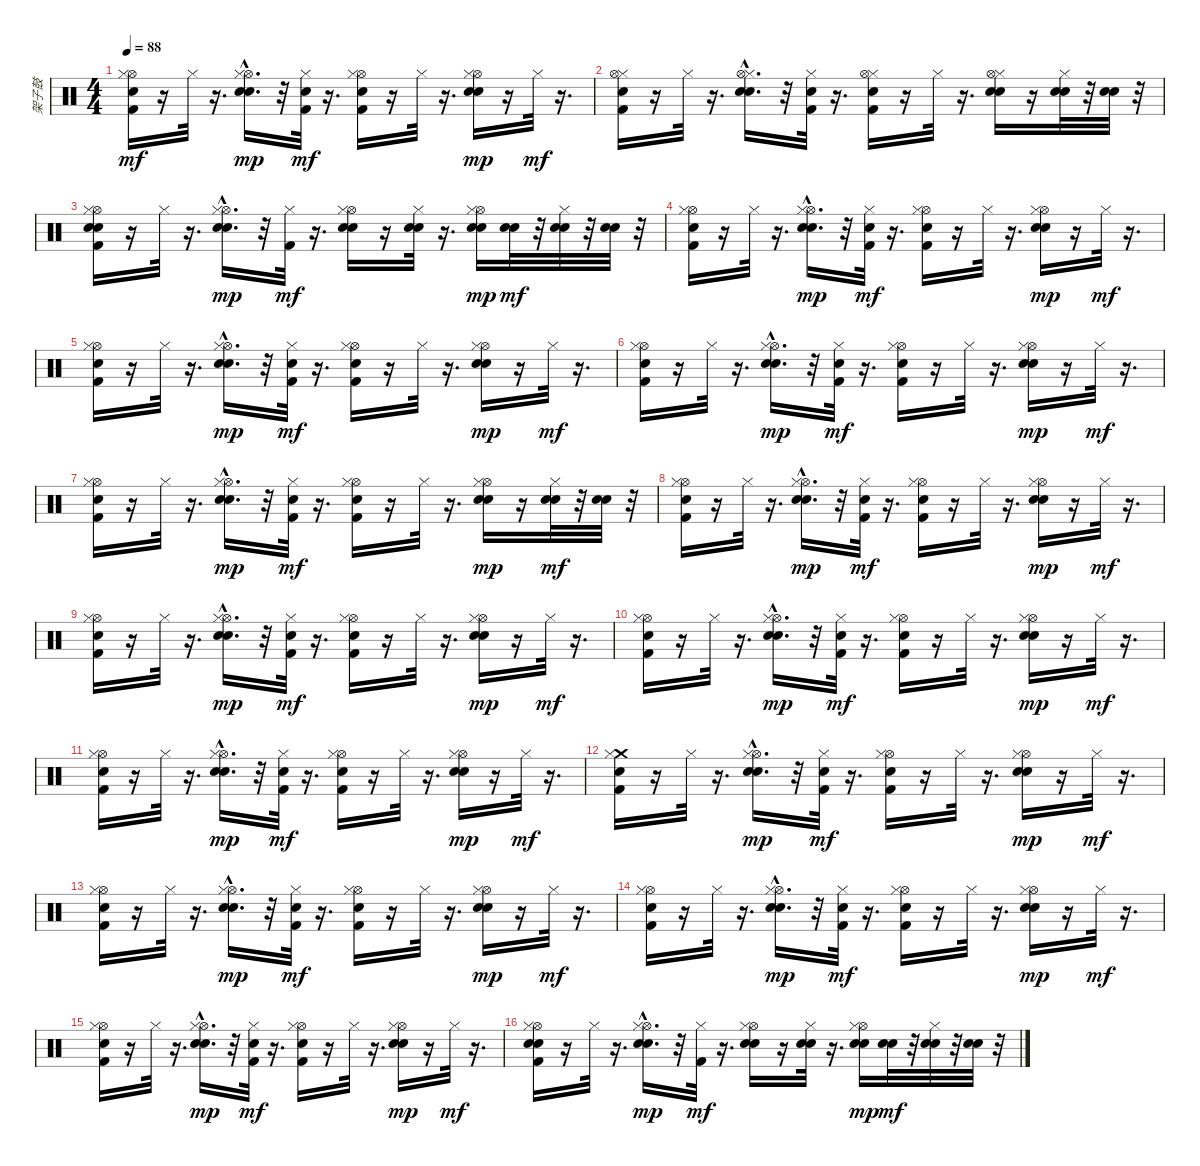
\track ("架子鼓" "架子鼓") {instrument percussion}
\staff {score}
\articulation defaults
\ts (4 4)
\tempo 88
\clef neutral
\ks c
("Hi-Hat (open)" "Hi-Hat (closed)" "Kick (hit) 2" "Snare (hit)").16{dy mf} r.16 "Hi-Hat (closed)".32 r.16{d} ("Hi-Hat (open)"{hac} "Hi-Hat (closed)" "Electric Snare (hit)" "Metronome (bell)").16{d dy mp} r.32 ("Hi-Hat (closed)" "Kick (hit) 2" "Snare (hit)").32{dy mf} r.16{d} ("Hi-Hat (open)" "Hi-Hat (closed)" "Kick (hit) 2" "Snare (hit)").16 r.16 "Hi-Hat (closed)".32 r.16{d} ("Hi-Hat (open)" "Hi-Hat (closed)" "Electric Snare (hit)" "Metronome (bell)").16{dy mp} r.16 "Hi-Hat (closed)".32{dy mf} r.16{d} |
("Snare (hit)" "Kick (hit) 2" "Hi-Hat (closed)" "Hi-Hat (open)").16 r.16 "Hi-Hat (closed)".32 r.16{d} ("Metronome (bell)" "Electric Snare (hit)" "Hi-Hat (closed)" "Hi-Hat (open)"{hac}).16{d} r.32 ("Snare (hit)" "Kick (hit) 2" "Hi-Hat (closed)").32 r.16{d} ("Snare (hit)" "Kick (hit) 2" "Hi-Hat (closed)" "Hi-Hat (open)").16 r.16 "Hi-Hat (closed)".32 r.16{d} ("Metronome (bell)" "Electric Snare (hit)" "Hi-Hat (closed)" "Hi-Hat (open)").16 r.16 ("Metronome (bell)" "Hi-Hat (closed)" "Electric Snare (hit)").32 r.32 ("Electric Snare (hit)" "Metronome (bell)").32 r.32 |
("Hi-Hat (open)" "Hi-Hat (closed)" "Electric Snare (hit)" "Electric Snare (hit)" "Kick (hit) 2").16 r.16 "Hi-Hat (closed)".32 r.16{d} ("Hi-Hat (open)"{hac} "Hi-Hat (closed)" "Electric Snare (hit)" "Metronome (bell)").16{d dy mp} r.32 ("Hi-Hat (closed)" "Kick (hit) 2").32{dy mf} r.16{d} ("Hi-Hat (open)" "Hi-Hat (closed)" "Electric Snare (hit)" "Metronome (bell)").16 r.16 ("Hi-Hat (closed)" "Electric Snare (hit)" "Metronome (bell)").32 r.16{d} ("Hi-Hat (open)" "Hi-Hat (closed)" "Electric Snare (hit)" "Metronome (bell)").16{dy mp} ("Electric Snare (hit)" "Metronome (bell)").32{dy mf} r.32 ("Hi-Hat (closed)" "Electric Snare (hit)" "Metronome (bell)").32 r.32 ("Electric Snare (hit)" "Metronome (bell)").32 r.32 |
("Hi-Hat (open)" "Hi-Hat (closed)" "Kick (hit) 2" "Snare (hit)").16 r.16 "Hi-Hat (closed)".32 r.16{d} ("Hi-Hat (open)"{hac} "Hi-Hat (closed)" "Electric Snare (hit)" "Metronome (bell)").16{d dy mp} r.32 ("Hi-Hat (closed)" "Kick (hit) 2" "Snare (hit)").32{dy mf} r.16{d} ("Hi-Hat (open)" "Hi-Hat (closed)" "Kick (hit) 2" "Snare (hit)").16 r.16 "Hi-Hat (closed)".32 r.16{d} ("Hi-Hat (open)" "Hi-Hat (closed)" "Electric Snare (hit)" "Metronome (bell)").16{dy mp} r.16 "Hi-Hat (closed)".32{dy mf} r.16{d} |
("Hi-Hat (open)" "Hi-Hat (closed)" "Kick (hit) 2" "Snare (hit)").16 r.16 "Hi-Hat (closed)".32 r.16{d} ("Hi-Hat (open)"{hac} "Hi-Hat (closed)" "Electric Snare (hit)" "Metronome (bell)").16{d dy mp} r.32 ("Hi-Hat (closed)" "Kick (hit) 2" "Snare (hit)").32{dy mf} r.16{d} ("Hi-Hat (open)" "Hi-Hat (closed)" "Kick (hit) 2" "Snare (hit)").16 r.16 "Hi-Hat (closed)".32 r.16{d} ("Hi-Hat (open)" "Hi-Hat (closed)" "Electric Snare (hit)" "Metronome (bell)").16{dy mp} r.16 "Hi-Hat (closed)".32{dy mf} r.16{d} |
("Hi-Hat (open)" "Hi-Hat (closed)" "Kick (hit) 2" "Snare (hit)").16 r.16 "Hi-Hat (closed)".32 r.16{d} ("Hi-Hat (open)"{hac} "Hi-Hat (closed)" "Electric Snare (hit)" "Metronome (bell)").16{d dy mp} r.32 ("Hi-Hat (closed)" "Kick (hit) 2" "Snare (hit)").32{dy mf} r.16{d} ("Hi-Hat (open)" "Hi-Hat (closed)" "Kick (hit) 2" "Snare (hit)").16 r.16 "Hi-Hat (closed)".32 r.16{d} ("Hi-Hat (open)" "Hi-Hat (closed)" "Electric Snare (hit)" "Metronome (bell)").16{dy mp} r.16 "Hi-Hat (closed)".32{dy mf} r.16{d} |
("Hi-Hat (open)" "Hi-Hat (closed)" "Kick (hit) 2" "Snare (hit)").16 r.16 "Hi-Hat (closed)".32 r.16{d} ("Hi-Hat (open)"{hac} "Hi-Hat (closed)" "Electric Snare (hit)" "Metronome (bell)").16{d dy mp} r.32 ("Hi-Hat (closed)" "Kick (hit) 2" "Snare (hit)").32{dy mf} r.16{d} ("Hi-Hat (open)" "Hi-Hat (closed)" "Kick (hit) 2" "Snare (hit)").16 r.16 "Hi-Hat (closed)".32 r.16{d} ("Hi-Hat (open)" "Hi-Hat (closed)" "Electric Snare (hit)" "Metronome (bell)").16{dy mp} r.16 ("Hi-Hat (closed)" "Electric Snare (hit)" "Metronome (bell)").32{dy mf} r.32 ("Electric Snare (hit)" "Metronome (bell)").32 r.32 |
("Hi-Hat (open)" "Hi-Hat (closed)" "Kick (hit) 2" "Snare (hit)").16 r.16 "Hi-Hat (closed)".32 r.16{d} ("Hi-Hat (open)"{hac} "Hi-Hat (closed)" "Electric Snare (hit)" "Metronome (bell)").16{d dy mp} r.32 ("Hi-Hat (closed)" "Kick (hit) 2" "Snare (hit)").32{dy mf} r.16{d} ("Hi-Hat (open)" "Hi-Hat (closed)" "Kick (hit) 2" "Snare (hit)").16 r.16 "Hi-Hat (closed)".32 r.16{d} ("Hi-Hat (open)" "Hi-Hat (closed)" "Electric Snare (hit)" "Metronome (bell)").16{dy mp} r.16 "Hi-Hat (closed)".32{dy mf} r.16{d} |
("Hi-Hat (open)" "Hi-Hat (closed)" "Kick (hit) 2" "Snare (hit)").16 r.16 "Hi-Hat (closed)".32 r.16{d} ("Hi-Hat (open)"{hac} "Hi-Hat (closed)" "Electric Snare (hit)" "Metronome (bell)").16{d dy mp} r.32 ("Hi-Hat (closed)" "Kick (hit) 2" "Snare (hit)").32{dy mf} r.16{d} ("Hi-Hat (open)" "Hi-Hat (closed)" "Kick (hit) 2" "Snare (hit)").16 r.16 "Hi-Hat (closed)".32 r.16{d} ("Hi-Hat (open)" "Hi-Hat (closed)" "Electric Snare (hit)" "Metronome (bell)").16{dy mp} r.16 "Hi-Hat (closed)".32{dy mf} r.16{d} |
("Hi-Hat (open)" "Hi-Hat (closed)" "Kick (hit) 2" "Snare (hit)").16 r.16 "Hi-Hat (closed)".32 r.16{d} ("Hi-Hat (open)"{hac} "Hi-Hat (closed)" "Electric Snare (hit)" "Metronome (bell)").16{d dy mp} r.32 ("Hi-Hat (closed)" "Kick (hit) 2" "Snare (hit)").32{dy mf} r.16{d} ("Hi-Hat (open)" "Hi-Hat (closed)" "Kick (hit) 2" "Snare (hit)").16 r.16 "Hi-Hat (closed)".32 r.16{d} ("Hi-Hat (open)" "Hi-Hat (closed)" "Electric Snare (hit)" "Metronome (bell)").16{dy mp} r.16 "Hi-Hat (closed)".32{dy mf} r.16{d} |
("Hi-Hat (open)" "Hi-Hat (closed)" "Kick (hit) 2" "Snare (hit)").16 r.16 "Hi-Hat (closed)".32 r.16{d} ("Hi-Hat (open)"{hac} "Hi-Hat (closed)" "Electric Snare (hit)" "Metronome (bell)").16{d dy mp} r.32 ("Hi-Hat (closed)" "Kick (hit) 2" "Snare (hit)").32{dy mf} r.16{d} ("Hi-Hat (open)" "Hi-Hat (closed)" "Kick (hit) 2" "Snare (hit)").16 r.16 "Hi-Hat (closed)".32 r.16{d} ("Hi-Hat (open)" "Hi-Hat (closed)" "Electric Snare (hit)" "Metronome (bell)").16{dy mp} r.16 "Hi-Hat (closed)".32{dy mf} r.16{d} |
("Crash medium (hit)" "Hi-Hat (closed)" "Kick (hit) 2" "Snare (hit)").16 r.16 "Hi-Hat (closed)".32 r.16{d} ("Hi-Hat (open)"{hac} "Hi-Hat (closed)" "Electric Snare (hit)" "Metronome (bell)").16{d dy mp} r.32 ("Hi-Hat (closed)" "Kick (hit) 2" "Snare (hit)").32{dy mf} r.16{d} ("Hi-Hat (open)" "Hi-Hat (closed)" "Kick (hit) 2" "Snare (hit)").16 r.16 "Hi-Hat (closed)".32 r.16{d} ("Hi-Hat (open)" "Hi-Hat (closed)" "Electric Snare (hit)" "Metronome (bell)").16{dy mp} r.16 "Hi-Hat (closed)".32{dy mf} r.16{d} |
("Hi-Hat (open)" "Hi-Hat (closed)" "Kick (hit) 2" "Snare (hit)").16 r.16 "Hi-Hat (closed)".32 r.16{d} ("Hi-Hat (open)"{hac} "Hi-Hat (closed)" "Electric Snare (hit)" "Metronome (bell)").16{d dy mp} r.32 ("Hi-Hat (closed)" "Kick (hit) 2" "Snare (hit)").32{dy mf} r.16{d} ("Hi-Hat (open)" "Hi-Hat (closed)" "Kick (hit) 2" "Snare (hit)").16 r.16 "Hi-Hat (closed)".32 r.16{d} ("Hi-Hat (open)" "Hi-Hat (closed)" "Electric Snare (hit)" "Metronome (bell)").16{dy mp} r.16 "Hi-Hat (closed)".32{dy mf} r.16{d} |
("Hi-Hat (open)" "Hi-Hat (closed)" "Kick (hit) 2" "Snare (hit)").16 r.16 "Hi-Hat (closed)".32 r.16{d} ("Hi-Hat (open)"{hac} "Hi-Hat (closed)" "Electric Snare (hit)" "Metronome (bell)").16{d dy mp} r.32 ("Hi-Hat (closed)" "Kick (hit) 2" "Snare (hit)").32{dy mf} r.16{d} ("Hi-Hat (open)" "Hi-Hat (closed)" "Kick (hit) 2" "Snare (hit)").16 r.16 "Hi-Hat (closed)".32 r.16{d} ("Hi-Hat (open)" "Hi-Hat (closed)" "Electric Snare (hit)" "Metronome (bell)").16{dy mp} r.16 "Hi-Hat (closed)".32{dy mf} r.16{d} |
("Hi-Hat (open)" "Hi-Hat (closed)" "Kick (hit) 2" "Snare (hit)").16 r.16 "Hi-Hat (closed)".32 r.16{d} ("Hi-Hat (open)"{hac} "Hi-Hat (closed)" "Electric Snare (hit)" "Metronome (bell)").16{d dy mp} r.32 ("Hi-Hat (closed)" "Kick (hit) 2" "Snare (hit)").32{dy mf} r.16{d} ("Hi-Hat (open)" "Hi-Hat (closed)" "Kick (hit) 2" "Snare (hit)").16 r.16 "Hi-Hat (closed)".32 r.16{d} ("Hi-Hat (open)" "Hi-Hat (closed)" "Electric Snare (hit)" "Metronome (bell)").16{dy mp} r.16 "Hi-Hat (closed)".32{dy mf} r.16{d} |
("Hi-Hat (open)" "Hi-Hat (closed)" "Electric Snare (hit)" "Electric Snare (hit)" "Kick (hit) 2").16 r.16 "Hi-Hat (closed)".32 r.16{d} ("Hi-Hat (open)"{hac} "Hi-Hat (closed)" "Electric Snare (hit)" "Metronome (bell)").16{d dy mp} r.32 ("Hi-Hat (closed)" "Kick (hit) 2").32{dy mf} r.16{d} ("Hi-Hat (open)" "Hi-Hat (closed)" "Electric Snare (hit)" "Metronome (bell)").16 r.16 ("Hi-Hat (closed)" "Electric Snare (hit)" "Metronome (bell)").32 r.16{d} ("Hi-Hat (open)" "Hi-Hat (closed)" "Electric Snare (hit)" "Metronome (bell)").16{dy mp} ("Electric Snare (hit)" "Metronome (bell)").32{dy mf} r.32 ("Hi-Hat (closed)" "Electric Snare (hit)" "Metronome (bell)").32 r.32 ("Electric Snare (hit)" "Metronome (bell)").32 r.32
